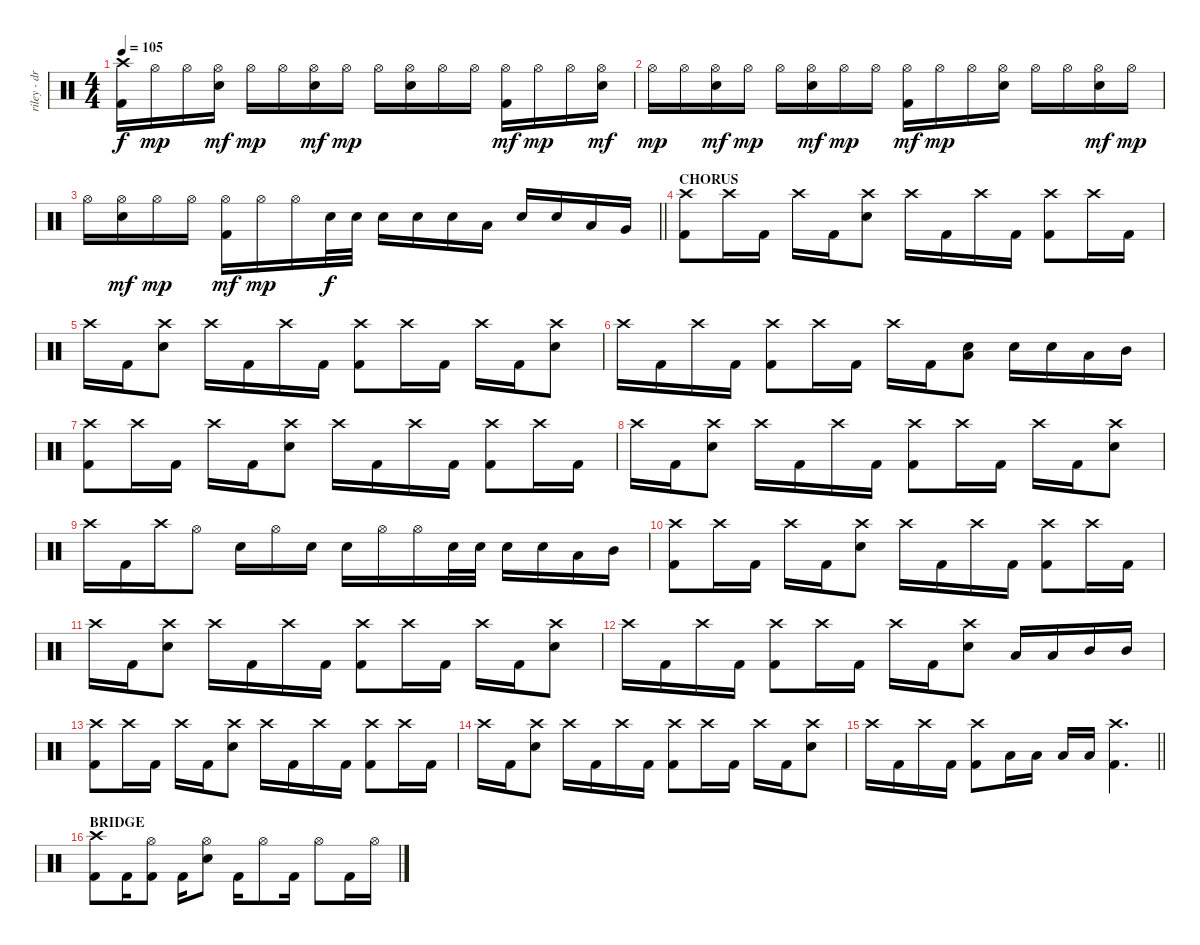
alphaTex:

\track ("riley - drums" "riley - dr") {instrument percussion}
\staff {score}
\articulation defaults
\ts (4 4)
\tempo 105
\clef neutral
\ks c
("Kick (hit) 2" "Crash high (hit)").16{dy f} "Hi-Hat (open)".16{dy mp} "Hi-Hat (open)".16 ("Electric Snare (hit)" "Hi-Hat (open)").16{dy mf} "Hi-Hat (open)".16{dy mp} "Hi-Hat (open)".16 ("Electric Snare (hit)" "Hi-Hat (open)").16{dy mf} "Hi-Hat (open)".16{dy mp} "Hi-Hat (open)".16 ("Electric Snare (hit)" "Hi-Hat (open)").16 "Hi-Hat (open)".16 "Hi-Hat (open)".16 ("Kick (hit) 2" "Hi-Hat (open)").16{dy mf} "Hi-Hat (open)".16{dy mp} "Hi-Hat (open)".16 ("Electric Snare (hit)" "Hi-Hat (open)").16{dy mf} |
"Hi-Hat (open)".16{dy mp} "Hi-Hat (open)".16 ("Electric Snare (hit)" "Hi-Hat (open)").16{dy mf} "Hi-Hat (open)".16{dy mp} "Hi-Hat (open)".16 ("Electric Snare (hit)" "Hi-Hat (open)").16{dy mf} "Hi-Hat (open)".16{dy mp} "Hi-Hat (open)".16 ("Kick (hit) 2" "Hi-Hat (open)").16{dy mf} "Hi-Hat (open)".16{dy mp} "Hi-Hat (open)".16 ("Electric Snare (hit)" "Hi-Hat (open)").16 "Hi-Hat (open)".16 "Hi-Hat (open)".16 ("Electric Snare (hit)" "Hi-Hat (open)").16{dy mf} "Hi-Hat (open)".16{dy mp} |
\barLineRight lightlight "Hi-Hat (open)".16
("Electric Snare (hit)" "Hi-Hat (open)").16{dy mf} "Hi-Hat (open)".16{dy mp} "Hi-Hat (open)".16 ("Kick (hit) 2" "Hi-Hat (open)").16{dy mf} "Hi-Hat (open)".16{dy mp} "Hi-Hat (open)".16 "Electric Snare (hit)".32{dy f} "Electric Snare (hit)".32 "Electric Snare (hit)".16 "Electric Snare (hit)".16 "Electric Snare (hit)".16 "Low Tom (hit)".16 "Electric Snare (hit)".16 "Electric Snare (hit)".16 "Low Tom (hit)".16 "Very Low Tom (hit)".16 |
\section ("" "CHORUS")
("Kick (hit) 2" "Crash high (hit)").8 "Crash high (hit)".16 "Kick (hit) 2".16 "Crash high (hit)".16 "Kick (hit) 2".16 ("Electric Snare (hit)" "Crash high (hit)").8 "Crash high (hit)".16 "Kick (hit) 2".16 "Crash high (hit)".16 "Kick (hit) 2".16 ("Kick (hit) 2" "Crash high (hit)").8 "Crash high (hit)".16 "Kick (hit) 2".16 |
"Crash high (hit)".16 "Kick (hit) 2".16 ("Electric Snare (hit)" "Crash high (hit)").8 "Crash high (hit)".16 "Kick (hit) 2".16 "Crash high (hit)".16 "Kick (hit) 2".16 ("Kick (hit) 2" "Crash high (hit)").8 "Crash high (hit)".16 "Kick (hit) 2".16 "Crash high (hit)".16 "Kick (hit) 2".16 ("Electric Snare (hit)" "Crash high (hit)").8 |
"Crash high (hit)".16 "Kick (hit) 2".16 "Crash high (hit)".16 "Kick (hit) 2".16 ("Kick (hit) 2" "Crash high (hit)").8 "Crash high (hit)".16 "Kick (hit) 2".16 "Crash high (hit)".16 "Kick (hit) 2".16 ("Electric Snare (hit)" "Low Floor Tom (hit)").8 "Electric Snare (hit)".16 "Electric Snare (hit)".16 "Low Tom (hit)".16 "Mid Tom (hit)".16 |
("Kick (hit) 2" "Crash high (hit)").8 "Crash high (hit)".16 "Kick (hit) 2".16 "Crash high (hit)".16 "Kick (hit) 2".16 ("Electric Snare (hit)" "Crash high (hit)").8 "Crash high (hit)".16 "Kick (hit) 2".16 "Crash high (hit)".16 "Kick (hit) 2".16 ("Kick (hit) 2" "Crash high (hit)").8 "Crash high (hit)".16 "Kick (hit) 2".16 |
"Crash high (hit)".16 "Kick (hit) 2".16 ("Electric Snare (hit)" "Crash high (hit)").8 "Crash high (hit)".16 "Kick (hit) 2".16 "Crash high (hit)".16 "Kick (hit) 2".16 ("Kick (hit) 2" "Crash high (hit)").8 "Crash high (hit)".16 "Kick (hit) 2".16 "Crash high (hit)".16 "Kick (hit) 2".16 ("Electric Snare (hit)" "Crash high (hit)").8 |
"Crash high (hit)".16 "Kick (hit) 2".16 "Crash high (hit)".16 "Hi-Hat (open)".8 "Electric Snare (hit)".16 "Hi-Hat (open)".16 "Electric Snare (hit)".16 "Electric Snare (hit)".16 "Hi-Hat (open)".16 "Hi-Hat (open)".16 "Electric Snare (hit)".32 "Electric Snare (hit)".32 "Electric Snare (hit)".16 "Electric Snare (hit)".16 "Low Tom (hit)".16 "Mid Tom (hit)".16 |
("Kick (hit) 2" "Crash high (hit)").8 "Crash high (hit)".16 "Kick (hit) 2".16 "Crash high (hit)".16 "Kick (hit) 2".16 ("Electric Snare (hit)" "Crash high (hit)").8 "Crash high (hit)".16 "Kick (hit) 2".16 "Crash high (hit)".16 "Kick (hit) 2".16 ("Kick (hit) 2" "Crash high (hit)").8 "Crash high (hit)".16 "Kick (hit) 2".16 |
"Crash high (hit)".16 "Kick (hit) 2".16 ("Electric Snare (hit)" "Crash high (hit)").8 "Crash high (hit)".16 "Kick (hit) 2".16 "Crash high (hit)".16 "Kick (hit) 2".16 ("Kick (hit) 2" "Crash high (hit)").8 "Crash high (hit)".16 "Kick (hit) 2".16 "Crash high (hit)".16 "Kick (hit) 2".16 ("Electric Snare (hit)" "Crash high (hit)").8 |
"Crash high (hit)".16 "Kick (hit) 2".16 "Crash high (hit)".16 "Kick (hit) 2".16 ("Kick (hit) 2" "Crash high (hit)").8 "Crash high (hit)".16 "Kick (hit) 2".16 "Crash high (hit)".16 "Kick (hit) 2".16 ("Electric Snare (hit)" "Crash high (hit)").8 "Low Tom (hit)".16 "Low Tom (hit)".16 "Mid Tom (hit)".16 "Mid Tom (hit)".16 |
("Kick (hit) 2" "Crash high (hit)").8 "Crash high (hit)".16 "Kick (hit) 2".16 "Crash high (hit)".16 "Kick (hit) 2".16 ("Electric Snare (hit)" "Crash high (hit)").8 "Crash high (hit)".16 "Kick (hit) 2".16 "Crash high (hit)".16 "Kick (hit) 2".16 ("Kick (hit) 2" "Crash high (hit)").8 "Crash high (hit)".16 "Kick (hit) 2".16 |
"Crash high (hit)".16 "Kick (hit) 2".16 ("Electric Snare (hit)" "Crash high (hit)").8 "Crash high (hit)".16 "Kick (hit) 2".16 "Crash high (hit)".16 "Kick (hit) 2".16 ("Kick (hit) 2" "Crash high (hit)").8 "Crash high (hit)".16 "Kick (hit) 2".16 "Crash high (hit)".16 "Kick (hit) 2".16 ("Electric Snare (hit)" "Crash high (hit)").8 |
\barLineRight lightlight "Crash high (hit)".16 "Kick (hit) 2".16 "Crash high (hit)".16 "Kick (hit) 2".16
("Kick (hit) 2" "Crash high (hit)").8 "Low Floor Tom (hit)".16 "Low Floor Tom (hit)".16 "Low Floor Tom (hit)".16 "Low Floor Tom (hit)".16 ("Kick (hit) 2" "Crash high (hit)").4{d} |
\section ("" "BRIDGE")
("Crash high (hit)" "Kick (hit) 2").8 "Kick (hit) 2".16 ("Hi-Hat (open)" "Kick (hit) 2").8 "Kick (hit) 2".16 ("Hi-Hat (open)" "Electric Snare (hit)").8 "Kick (hit) 2".16 "Hi-Hat (open)".8 "Kick (hit) 2".16 "Hi-Hat (open)".8 "Kick (hit) 2".16 "Hi-Hat (open)".16
